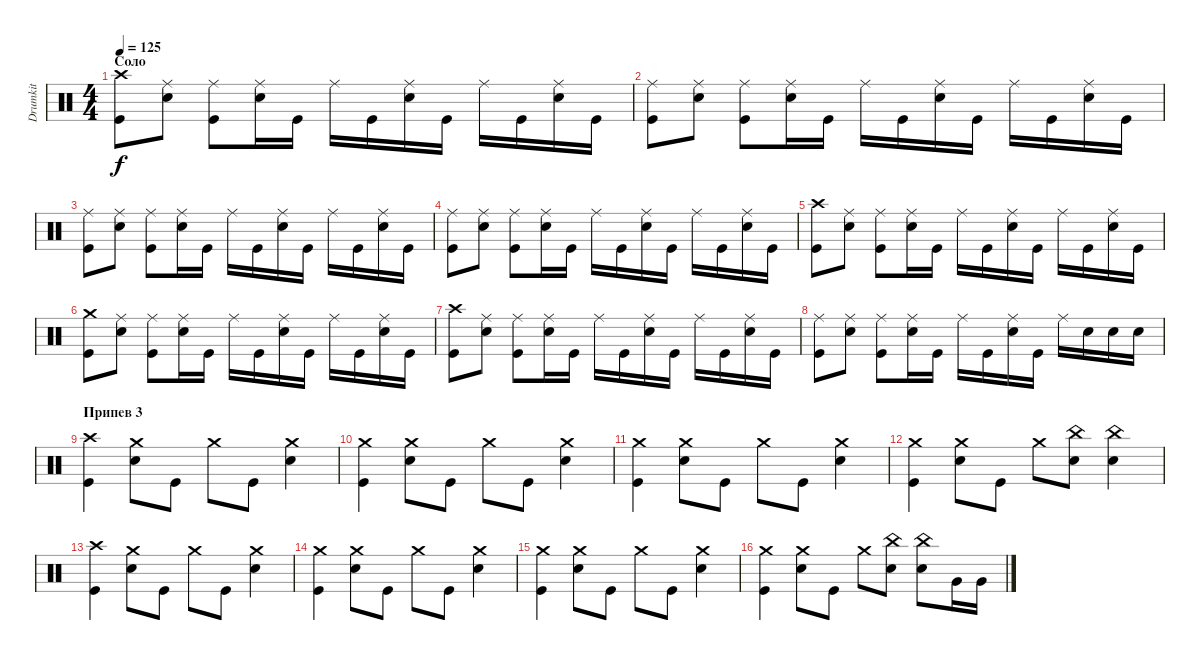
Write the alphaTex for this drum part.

\track ("Drumkit" "Drumkit") {instrument percussion}
\staff {score}
\articulation defaults
\ts (4 4)
\section ("" "Соло")
\tempo 125
\clef neutral
\ks c
("Crash high (hit)" "Kick (hit)").8{dy f} ("Ride (middle)" "Snare (hit) 2").8 ("Kick (hit)" "Ride (middle)").8 ("Ride (middle)" "Snare (hit) 2").16 "Kick (hit)".16 "Ride (middle)".16 "Kick (hit)".16 ("Ride (middle)" "Snare (hit) 2").16 "Kick (hit)".16 "Ride (middle)".16 "Kick (hit)".16 ("Ride (middle)" "Snare (hit) 2").16 "Kick (hit)".16 |
("Ride (middle)" "Kick (hit)").8 ("Ride (middle)" "Snare (hit) 2").8 ("Kick (hit)" "Ride (middle)").8 ("Ride (middle)" "Snare (hit) 2").16 "Kick (hit)".16 "Ride (middle)".16 "Kick (hit)".16 ("Ride (middle)" "Snare (hit) 2").16 "Kick (hit)".16 "Ride (middle)".16 "Kick (hit)".16 ("Ride (middle)" "Snare (hit) 2").16 "Kick (hit)".16 |
("Ride (middle)" "Kick (hit)").8 ("Ride (middle)" "Snare (hit) 2").8 ("Kick (hit)" "Ride (middle)").8 ("Ride (middle)" "Snare (hit) 2").16 "Kick (hit)".16 "Ride (middle)".16 "Kick (hit)".16 ("Ride (middle)" "Snare (hit) 2").16 "Kick (hit)".16 "Ride (middle)".16 "Kick (hit)".16 ("Ride (middle)" "Snare (hit) 2").16 "Kick (hit)".16 |
("Ride (middle)" "Kick (hit)").8 ("Ride (middle)" "Snare (hit) 2").8 ("Kick (hit)" "Ride (middle)").8 ("Ride (middle)" "Snare (hit) 2").16 "Kick (hit)".16 "Ride (middle)".16 "Kick (hit)".16 ("Ride (middle)" "Snare (hit) 2").16 "Kick (hit)".16 "Ride (middle)".16 "Kick (hit)".16 ("Ride (middle)" "Snare (hit) 2").16 "Kick (hit)".16 |
("Crash high (hit)" "Kick (hit)").8 ("Ride (middle)" "Snare (hit) 2").8 ("Kick (hit)" "Ride (middle)").8 ("Ride (middle)" "Snare (hit) 2").16 "Kick (hit)".16 "Ride (middle)".16 "Kick (hit)".16 ("Ride (middle)" "Snare (hit) 2").16 "Kick (hit)".16 "Ride (middle)".16 "Kick (hit)".16 ("Ride (middle)" "Snare (hit) 2").16 "Kick (hit)".16 |
("Crash medium (hit)" "Kick (hit)").8 ("Ride (middle)" "Snare (hit) 2").8 ("Kick (hit)" "Ride (middle)").8 ("Ride (middle)" "Snare (hit) 2").16 "Kick (hit)".16 "Ride (middle)".16 "Kick (hit)".16 ("Ride (middle)" "Snare (hit) 2").16 "Kick (hit)".16 "Ride (middle)".16 "Kick (hit)".16 ("Ride (middle)" "Snare (hit) 2").16 "Kick (hit)".16 |
("Crash high (hit)" "Kick (hit)").8 ("Ride (middle)" "Snare (hit) 2").8 ("Kick (hit)" "Ride (middle)").8 ("Ride (middle)" "Snare (hit) 2").16 "Kick (hit)".16 "Ride (middle)".16 "Kick (hit)".16 ("Ride (middle)" "Snare (hit) 2").16 "Kick (hit)".16 "Ride (middle)".16 "Kick (hit)".16 ("Ride (middle)" "Snare (hit) 2").16 "Kick (hit)".16 |
("Ride (middle)" "Kick (hit)").8 ("Ride (middle)" "Snare (hit) 2").8 ("Kick (hit)" "Ride (middle)").8 ("Ride (middle)" "Snare (hit) 2").16 "Kick (hit)".16 "Ride (middle)".16 "Kick (hit)".16 ("Ride (middle)" "Snare (hit) 2").16 "Kick (hit)".16 "Ride (middle)".16 "Snare (hit) 2".16 "Snare (hit) 2".16 "Snare (hit) 2".16 |
\section ("" "Припев 3")
("Crash high (hit)" "Kick (hit)").4 ("Crash medium (hit)" "Snare (hit) 2").8 "Kick (hit)".8 "Crash medium (hit)".8 "Kick (hit)".8 ("Crash medium (hit)" "Snare (hit) 2").4 |
("Crash medium (hit)" "Kick (hit)").4 ("Crash medium (hit)" "Snare (hit) 2").8 "Kick (hit)".8 "Crash medium (hit)".8 "Kick (hit)".8 ("Crash medium (hit)" "Snare (hit) 2").4 |
("Crash medium (hit)" "Kick (hit)").4 ("Crash medium (hit)" "Snare (hit) 2").8 "Kick (hit)".8 "Crash medium (hit)".8 "Kick (hit)".8 ("Crash medium (hit)" "Snare (hit) 2").4 |
("Crash medium (hit)" "Kick (hit)").4 ("Crash medium (hit)" "Snare (hit) 2").8 "Kick (hit)".8 "Crash medium (hit)".8 ("China (hit)" "Snare (hit) 2").8 ("China (hit)" "Snare (hit) 2").4 |
("Crash high (hit)" "Kick (hit)").4 ("Crash medium (hit)" "Snare (hit) 2").8 "Kick (hit)".8 "Crash medium (hit)".8 "Kick (hit)".8 ("Crash medium (hit)" "Snare (hit) 2").4 |
("Crash medium (hit)" "Kick (hit)").4 ("Crash medium (hit)" "Snare (hit) 2").8 "Kick (hit)".8 "Crash medium (hit)".8 "Kick (hit)".8 ("Crash medium (hit)" "Snare (hit) 2").4 |
("Crash medium (hit)" "Kick (hit)").4 ("Crash medium (hit)" "Snare (hit) 2").8 "Kick (hit)".8 "Crash medium (hit)".8 "Kick (hit)".8 ("Crash medium (hit)" "Snare (hit) 2").4 |
("Crash medium (hit)" "Kick (hit)").4 ("Crash medium (hit)" "Snare (hit) 2").8 "Kick (hit)".8 "Crash medium (hit)".8 ("China (hit)" "Snare (hit) 2").8 ("China (hit)" "Snare (hit) 2").8 "Very Low Tom (hit)".16 "Very Low Tom (hit)".16
